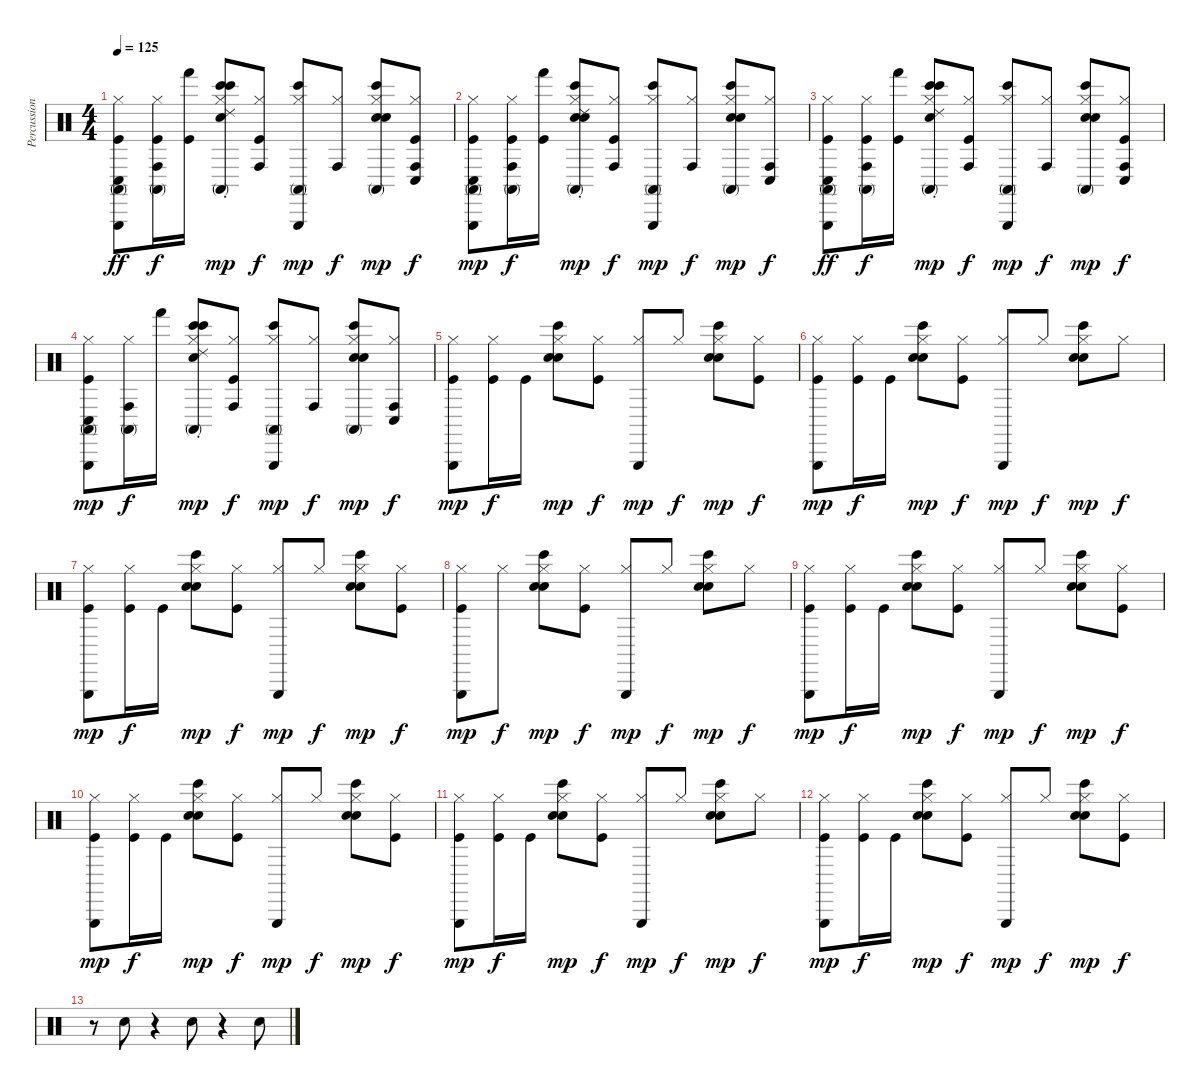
\track ("Percussion" "Percussion") {instrument percussion}
\staff {score}
\articulation defaults
\ts (4 4)
\tempo 125
\clef neutral
\ks c
("Hi-Hat (closed)" "Triangle (hit)" "Conga high (mute)" "Conga low (hit)" "Kick (hit)").8{dy ff} ("Hi-Hat (closed)" "Conga high (hit)" "Conga high (mute)" "Kick (hit)").16{dy f} ("Hand (hit)" "Kick (hit)").16 ("Hi-Hat (closed)" "Bongo High (hit)" "Bongo High (hit)" "Electric Snare (hit)" "Conga high (mute)" "Ride (choke) 2").8{dy mp} ("Hi-Hat (closed)" "Conga high (hit)" "Kick (hit)").8{dy f} ("Hi-Hat (closed)" "Triangle (hit)" "Bongo High (hit)" "Conga high (mute)").8{dy mp} ("Hi-Hat (closed)" "Conga high (hit)").8{dy f} ("Hi-Hat (closed)" "Electric Snare (hit)" "Bongo High (hit)" "Electric Snare (hit)" "Conga high (mute)").8{dy mp} ("Hi-Hat (closed)" "Conga low (hit)" "Conga high (hit)" "Kick (hit)").8{dy f} |
("Hi-Hat (closed)" "Triangle (hit)" "Conga high (mute)" "Conga low (hit)" "Kick (hit)").8{dy mp} ("Hi-Hat (closed)" "Conga high (hit)" "Conga high (mute)" "Kick (hit)").16{dy f} ("Hand (hit)" "Kick (hit)").16 ("Hi-Hat (closed)" "Electric Snare (hit)" "Bongo High (hit)" "Electric Snare (hit)" "Conga high (mute)" "Ride (choke) 2").8{dy mp} ("Hi-Hat (closed)" "Conga high (hit)" "Kick (hit)").8{dy f} ("Hi-Hat (closed)" "Triangle (hit)" "Conga high (mute)" "Bongo High (hit)").8{dy mp} ("Hi-Hat (closed)" "Conga high (hit)").8{dy f} ("Hi-Hat (closed)" "Electric Snare (hit)" "Bongo High (hit)" "Electric Snare (hit)" "Conga high (mute)").8{dy mp} ("Hi-Hat (closed)" "Conga high (hit)" "Conga low (hit)").8{dy f} |
("Hi-Hat (closed)" "Triangle (hit)" "Conga high (mute)" "Conga low (hit)" "Kick (hit)").8{dy ff} ("Hi-Hat (closed)" "Conga high (hit)" "Conga high (mute)" "Kick (hit)").16{dy f} ("Hand (hit)" "Kick (hit)").16 ("Hi-Hat (closed)" "Bongo High (hit)" "Bongo High (hit)" "Electric Snare (hit)" "Conga high (mute)" "Ride (choke) 2").8{dy mp} ("Hi-Hat (closed)" "Conga high (hit)" "Kick (hit)").8{dy f} ("Hi-Hat (closed)" "Triangle (hit)" "Bongo High (hit)" "Conga high (mute)").8{dy mp} ("Hi-Hat (closed)" "Conga high (hit)").8{dy f} ("Hi-Hat (closed)" "Electric Snare (hit)" "Bongo High (hit)" "Electric Snare (hit)" "Conga high (mute)").8{dy mp} ("Hi-Hat (closed)" "Conga low (hit)" "Conga high (hit)" "Kick (hit)").8{dy f} |
("Hi-Hat (closed)" "Triangle (hit)" "Conga high (mute)" "Conga low (hit)" "Kick (hit)").8{dy mp} ("Hi-Hat (closed)" "Conga high (hit)" "Conga high (mute)").16{dy f} "Hand (hit)".16 ("Hi-Hat (closed)" "Bongo High (hit)" "Bongo High (hit)" "Electric Snare (hit)" "Conga high (mute)" "Ride (choke) 2").8{dy mp} ("Hi-Hat (closed)" "Conga high (hit)" "Kick (hit)").8{dy f} ("Hi-Hat (closed)" "Triangle (hit)" "Conga high (mute)" "Bongo High (hit)").8{dy mp} ("Hi-Hat (closed)" "Conga high (hit)").8{dy f} ("Hi-Hat (closed)" "Electric Snare (hit)" "Bongo High (hit)" "Electric Snare (hit)" "Conga high (mute)").8{dy mp} ("Hi-Hat (closed)" "Conga high (hit)" "Conga low (hit)").8{dy f} |
("Hi-Hat (closed)" "Triangle (hit)" "Kick (hit)").8{dy mp} ("Hi-Hat (closed)" "Kick (hit)").16{dy f} "Kick (hit)".16 ("Hi-Hat (closed)" "Electric Snare (hit)" "Bongo High (hit)" "Electric Snare (hit)").8{dy mp} ("Hi-Hat (closed)" "Kick (hit)").8{dy f} ("Hi-Hat (closed)" "Triangle (hit)").8{dy mp} "Hi-Hat (closed)".8{dy f} ("Hi-Hat (closed)" "Electric Snare (hit)" "Bongo High (hit)" "Electric Snare (hit)").8{dy mp} ("Hi-Hat (closed)" "Kick (hit)").8{dy f} |
("Hi-Hat (closed)" "Triangle (hit)" "Kick (hit)").8{dy mp} ("Hi-Hat (closed)" "Kick (hit)").16{dy f} "Kick (hit)".16 ("Hi-Hat (closed)" "Electric Snare (hit)" "Bongo High (hit)" "Electric Snare (hit)").8{dy mp} ("Hi-Hat (closed)" "Kick (hit)").8{dy f} ("Hi-Hat (closed)" "Triangle (hit)").8{dy mp} "Hi-Hat (closed)".8{dy f} ("Hi-Hat (closed)" "Electric Snare (hit)" "Bongo High (hit)" "Electric Snare (hit)").8{dy mp} "Hi-Hat (closed)".8{dy f} |
("Hi-Hat (closed)" "Triangle (hit)" "Kick (hit)").8{dy mp} ("Hi-Hat (closed)" "Kick (hit)").16{dy f} "Kick (hit)".16 ("Hi-Hat (closed)" "Electric Snare (hit)" "Bongo High (hit)" "Electric Snare (hit)").8{dy mp} ("Hi-Hat (closed)" "Kick (hit)").8{dy f} ("Hi-Hat (closed)" "Triangle (hit)").8{dy mp} "Hi-Hat (closed)".8{dy f} ("Hi-Hat (closed)" "Electric Snare (hit)" "Bongo High (hit)" "Electric Snare (hit)").8{dy mp} ("Hi-Hat (closed)" "Kick (hit)").8{dy f} |
("Hi-Hat (closed)" "Triangle (hit)" "Kick (hit)").8{dy mp} "Hi-Hat (closed)".8{dy f} ("Hi-Hat (closed)" "Electric Snare (hit)" "Bongo High (hit)" "Electric Snare (hit)").8{dy mp} ("Hi-Hat (closed)" "Kick (hit)").8{dy f} ("Hi-Hat (closed)" "Triangle (hit)").8{dy mp} "Hi-Hat (closed)".8{dy f} ("Hi-Hat (closed)" "Electric Snare (hit)" "Bongo High (hit)" "Electric Snare (hit)").8{dy mp} "Hi-Hat (closed)".8{dy f} |
("Hi-Hat (closed)" "Triangle (hit)" "Kick (hit)").8{dy mp} ("Hi-Hat (closed)" "Kick (hit)").16{dy f} "Kick (hit)".16 ("Hi-Hat (closed)" "Electric Snare (hit)" "Bongo High (hit)" "Electric Snare (hit)").8{dy mp} ("Hi-Hat (closed)" "Kick (hit)").8{dy f} ("Hi-Hat (closed)" "Triangle (hit)").8{dy mp} "Hi-Hat (closed)".8{dy f} ("Hi-Hat (closed)" "Electric Snare (hit)" "Bongo High (hit)" "Electric Snare (hit)").8{dy mp} ("Hi-Hat (closed)" "Kick (hit)").8{dy f} |
("Hi-Hat (closed)" "Triangle (hit)" "Kick (hit)").8{dy mp} ("Hi-Hat (closed)" "Kick (hit)").16{dy f} "Kick (hit)".16 ("Hi-Hat (closed)" "Electric Snare (hit)" "Bongo High (hit)" "Electric Snare (hit)").8{dy mp} ("Hi-Hat (closed)" "Kick (hit)").8{dy f} ("Hi-Hat (closed)" "Triangle (hit)").8{dy mp} "Hi-Hat (closed)".8{dy f} ("Hi-Hat (closed)" "Electric Snare (hit)" "Bongo High (hit)" "Electric Snare (hit)").8{dy mp} ("Hi-Hat (closed)" "Kick (hit)").8{dy f} |
("Hi-Hat (closed)" "Triangle (hit)" "Kick (hit)").8{dy mp} ("Hi-Hat (closed)" "Kick (hit)").16{dy f} "Kick (hit)".16 ("Hi-Hat (closed)" "Electric Snare (hit)" "Bongo High (hit)" "Electric Snare (hit)").8{dy mp} ("Hi-Hat (closed)" "Kick (hit)").8{dy f} ("Hi-Hat (closed)" "Triangle (hit)").8{dy mp} "Hi-Hat (closed)".8{dy f} ("Hi-Hat (closed)" "Electric Snare (hit)" "Bongo High (hit)" "Electric Snare (hit)").8{dy mp} "Hi-Hat (closed)".8{dy f} |
("Hi-Hat (closed)" "Triangle (hit)" "Kick (hit)").8{dy mp} ("Hi-Hat (closed)" "Kick (hit)").16{dy f} "Kick (hit)".16 ("Hi-Hat (closed)" "Electric Snare (hit)" "Bongo High (hit)" "Electric Snare (hit)").8{dy mp} ("Hi-Hat (closed)" "Kick (hit)").8{dy f} ("Hi-Hat (closed)" "Triangle (hit)").8{dy mp} "Hi-Hat (closed)".8{dy f} ("Hi-Hat (closed)" "Electric Snare (hit)" "Bongo High (hit)" "Electric Snare (hit)").8{dy mp} ("Hi-Hat (closed)" "Kick (hit)").8{dy f} |
r.8{balance 1} "Snare (hit) 2".8 r.4 "Snare (hit) 2".8 r.4 "Snare (hit) 2".8
